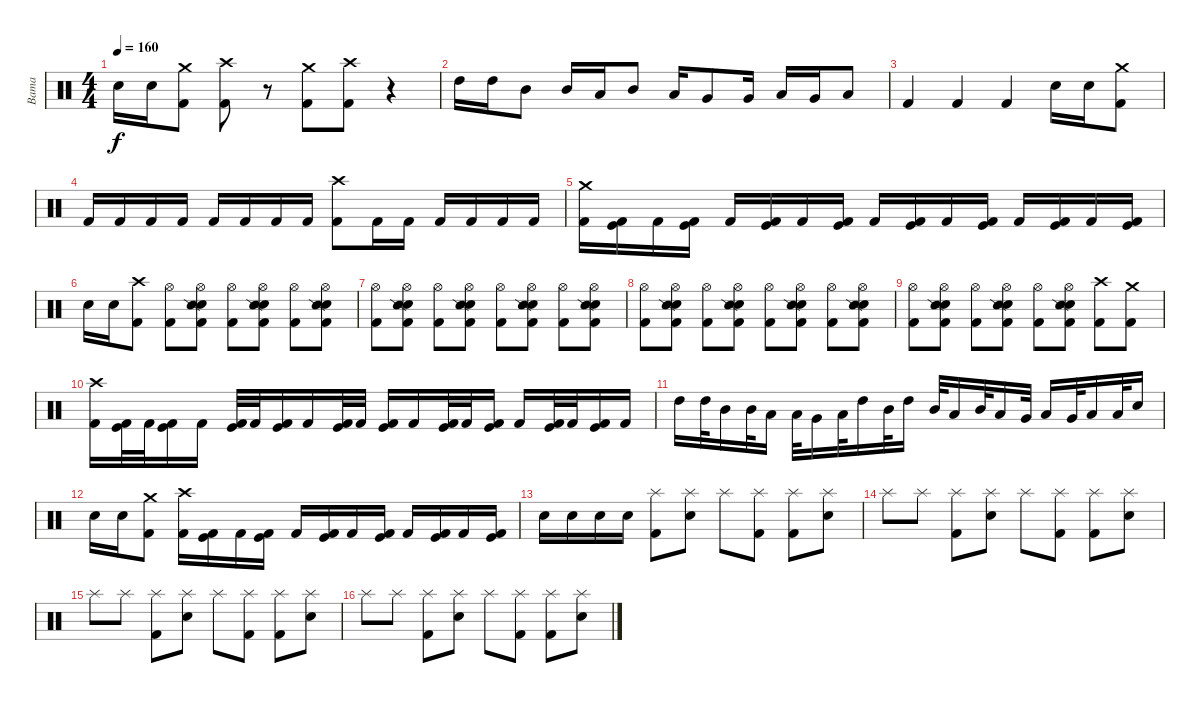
\track ("Bama" "Bama") {instrument percussion}
\staff {score}
\articulation defaults
\ts (4 4)
\tempo 160
\clef neutral
\ks c "Electric Snare (hit)".16{dy f} "Electric Snare (hit)".16
("Crash medium (hit)" "Kick (hit) 2").8 ("Crash high (hit)" "Kick (hit) 2").8 r.8 ("Crash medium (hit)" "Kick (hit) 2").8 ("Crash high (hit)" "Kick (hit) 2").8 r.4 |
"High Tom (hit)".16 "High Tom (hit)".16 "Mid Tom (hit)".8 "Mid Tom (hit)".16 "Low Tom (hit)".16 "Mid Tom (hit)".8 "Low Tom (hit)".16 "Very Low Tom (hit)".8 "Very Low Tom (hit)".16 "Low Tom (hit)".16 "Very Low Tom (hit)".16 "Low Floor Tom (hit)".8 |
"Kick (hit) 2".4 "Kick (hit) 2".4 "Kick (hit) 2".4 "Electric Snare (hit)".16 "Electric Snare (hit)".16 ("Crash medium (hit)" "Kick (hit) 2").8 |
"Kick (hit) 2".16 "Kick (hit) 2".16 "Kick (hit) 2".16 "Kick (hit) 2".16 "Kick (hit) 2".16 "Kick (hit) 2".16 "Kick (hit) 2".16 "Kick (hit) 2".16 ("Crash high (hit)" "Kick (hit) 2").8 "Kick (hit) 2".16 "Kick (hit) 2".16 "Kick (hit) 2".16 "Kick (hit) 2".16 "Kick (hit) 2".16 "Kick (hit) 2".16 |
("Crash medium (hit)" "Kick (hit) 2").16 ("Kick (hit)" "Kick (hit) 2").16 "Kick (hit) 2".16 ("Kick (hit)" "Kick (hit) 2").16 "Kick (hit) 2".16 ("Kick (hit)" "Kick (hit) 2").16 "Kick (hit) 2".16 ("Kick (hit)" "Kick (hit) 2").16 "Kick (hit) 2".16 ("Kick (hit)" "Kick (hit) 2").16 "Kick (hit) 2".16 ("Kick (hit)" "Kick (hit) 2").16 "Kick (hit) 2".16 ("Kick (hit)" "Kick (hit) 2").16 "Kick (hit) 2".16 ("Kick (hit)" "Kick (hit) 2").16 |
"Electric Snare (hit)".16 "Electric Snare (hit)".16 ("Crash high (hit)" "Kick (hit) 2").8 ("Hi-Hat (open)" "Kick (hit) 2").8 ("Hi-Hat (open)" "Electric Snare (hit)" "Snare (side stick) 2" "Kick (hit) 2").8 ("Hi-Hat (open)" "Kick (hit) 2").8 ("Hi-Hat (open)" "Electric Snare (hit)" "Snare (side stick) 2" "Kick (hit) 2").8 ("Hi-Hat (open)" "Kick (hit) 2").8 ("Hi-Hat (open)" "Electric Snare (hit)" "Snare (side stick) 2" "Kick (hit) 2").8 |
("Hi-Hat (open)" "Kick (hit) 2").8 ("Hi-Hat (open)" "Electric Snare (hit)" "Snare (side stick) 2" "Kick (hit) 2").8 ("Hi-Hat (open)" "Kick (hit) 2").8 ("Hi-Hat (open)" "Electric Snare (hit)" "Snare (side stick) 2" "Kick (hit) 2").8 ("Hi-Hat (open)" "Kick (hit) 2").8 ("Hi-Hat (open)" "Electric Snare (hit)" "Snare (side stick) 2" "Kick (hit) 2").8 ("Hi-Hat (open)" "Kick (hit) 2").8 ("Hi-Hat (open)" "Electric Snare (hit)" "Snare (side stick) 2" "Kick (hit) 2").8 |
("Hi-Hat (open)" "Kick (hit) 2").8 ("Hi-Hat (open)" "Electric Snare (hit)" "Snare (side stick) 2" "Kick (hit) 2").8 ("Hi-Hat (open)" "Kick (hit) 2").8 ("Hi-Hat (open)" "Electric Snare (hit)" "Snare (side stick) 2" "Kick (hit) 2").8 ("Hi-Hat (open)" "Kick (hit) 2").8 ("Hi-Hat (open)" "Electric Snare (hit)" "Snare (side stick) 2" "Kick (hit) 2").8 ("Hi-Hat (open)" "Kick (hit) 2").8 ("Hi-Hat (open)" "Electric Snare (hit)" "Snare (side stick) 2" "Kick (hit) 2").8 |
("Hi-Hat (open)" "Kick (hit) 2").8 ("Hi-Hat (open)" "Electric Snare (hit)" "Snare (side stick) 2" "Kick (hit) 2").8 ("Hi-Hat (open)" "Kick (hit) 2").8 ("Hi-Hat (open)" "Electric Snare (hit)" "Snare (side stick) 2" "Kick (hit) 2").8 ("Hi-Hat (open)" "Kick (hit) 2").8 ("Hi-Hat (open)" "Electric Snare (hit)" "Snare (side stick) 2" "Kick (hit) 2").8 ("Crash high (hit)" "Kick (hit) 2").8 ("Crash medium (hit)" "Kick (hit) 2").8 |
("Crash high (hit)" "Kick (hit) 2").16 ("Kick (hit)" "Kick (hit) 2").32 "Kick (hit) 2".32 ("Kick (hit)" "Kick (hit) 2").16 "Kick (hit) 2".16 ("Kick (hit)" "Kick (hit) 2").32 "Kick (hit) 2".32 ("Kick (hit)" "Kick (hit) 2").16 "Kick (hit) 2".16 ("Kick (hit)" "Kick (hit) 2").32 "Kick (hit) 2".32 ("Kick (hit)" "Kick (hit) 2").16 "Kick (hit) 2".16 ("Kick (hit)" "Kick (hit) 2").32 "Kick (hit) 2".32 ("Kick (hit)" "Kick (hit) 2").16 "Kick (hit) 2".16 ("Kick (hit)" "Kick (hit) 2").32 "Kick (hit) 2".32 ("Kick (hit)" "Kick (hit) 2").16 "Kick (hit) 2".16 |
"High Tom (hit)".16 "High Tom (hit)".32 "Mid Tom (hit)".16 "Mid Tom (hit)".32 "Low Tom (hit)".16 "Low Tom (hit)".32 "Very Low Tom (hit)".16 "Low Floor Tom (hit)".32 "High Tom (hit)".16 "Mid Tom (hit)".32 "High Tom (hit)".16 "Mid Tom (hit)".32 "Low Tom (hit)".16 "Mid Tom (hit)".32 "Low Tom (hit)".16 "Very Low Tom (hit)".32 "Low Tom (hit)".16 "Very Low Tom (hit)".32 "Low Floor Tom (hit)".16 "Low Floor Tom (hit)".32 "Electric Snare (hit)".16 |
"Electric Snare (hit)".16 "Electric Snare (hit)".16 ("Crash medium (hit)" "Kick (hit) 2").8 ("Crash high (hit)" "Kick (hit) 2").16 ("Kick (hit)" "Kick (hit) 2").16 "Kick (hit) 2".16 ("Kick (hit)" "Kick (hit) 2").16 "Kick (hit) 2".16 ("Kick (hit)" "Kick (hit) 2").16 "Kick (hit) 2".16 ("Kick (hit)" "Kick (hit) 2").16 "Kick (hit) 2".16 ("Kick (hit)" "Kick (hit) 2").16 "Kick (hit) 2".16 ("Kick (hit)" "Kick (hit) 2").16 |
"Electric Snare (hit)".16 "Electric Snare (hit)".16 "Electric Snare (hit)".16 "Electric Snare (hit)".16 ("Splash (hit)" "Kick (hit) 2").8 ("Splash (hit)" "Electric Snare (hit)").8 "Splash (hit)".8 ("Splash (hit)" "Kick (hit) 2").8 ("Splash (hit)" "Kick (hit) 2").8 ("Splash (hit)" "Electric Snare (hit)").8 |
"Splash (hit)".8 "Splash (hit)".8 ("Splash (hit)" "Kick (hit) 2").8 ("Splash (hit)" "Electric Snare (hit)").8 "Splash (hit)".8 ("Splash (hit)" "Kick (hit) 2").8 ("Splash (hit)" "Kick (hit) 2").8 ("Splash (hit)" "Electric Snare (hit)").8 |
"Splash (hit)".8 "Splash (hit)".8 ("Splash (hit)" "Kick (hit) 2").8 ("Splash (hit)" "Electric Snare (hit)").8 "Splash (hit)".8 ("Splash (hit)" "Kick (hit) 2").8 ("Splash (hit)" "Kick (hit) 2").8 ("Splash (hit)" "Electric Snare (hit)").8 |
"Splash (hit)".8 "Splash (hit)".8 ("Splash (hit)" "Kick (hit) 2").8 ("Splash (hit)" "Electric Snare (hit)").8 "Splash (hit)".8 ("Splash (hit)" "Kick (hit) 2").8 ("Splash (hit)" "Kick (hit) 2").8 ("Splash (hit)" "Electric Snare (hit)").8
